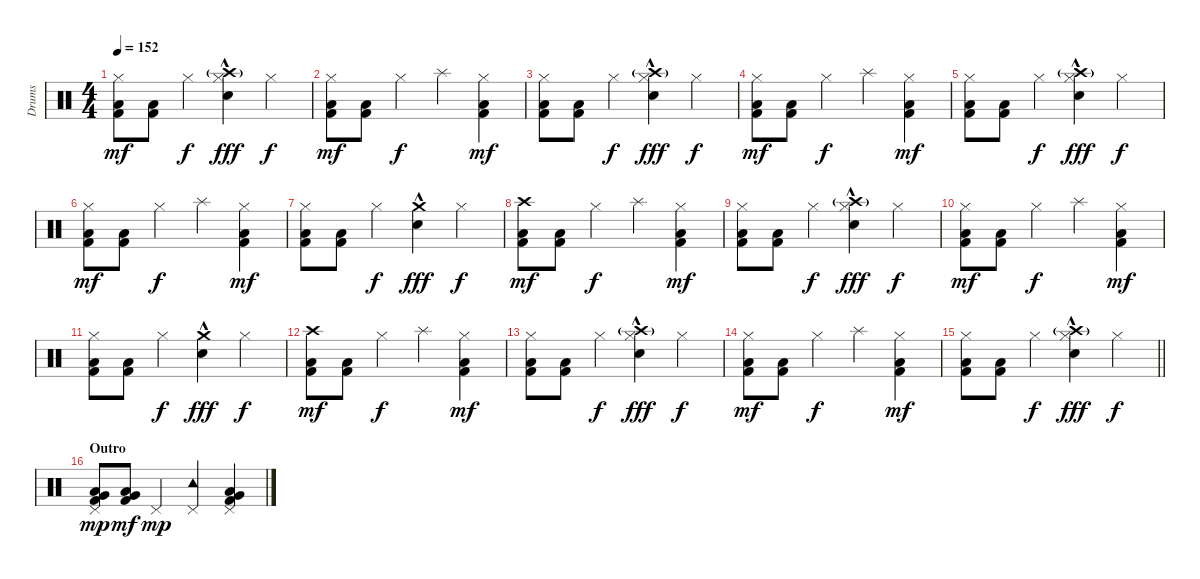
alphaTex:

\track ("Drums" "Drums") {instrument percussion}
\staff {score}
\articulation defaults
\ts (4 4)
\tempo 152
\clef neutral
\ks c
("Hi-Hat (closed)" "Low Floor Tom (hit)" "Kick (hit) 2").8{dy mf} ("Low Floor Tom (hit)" "Kick (hit) 2").8 "Hi-Hat (closed)".4{dy f} ("Crash high (hit)"{g} "Hi-Hat (closed)" "Snare (hit) 2"{hac}).4{dy fff} "Hi-Hat (closed)".4{dy f} |
("Hi-Hat (closed)" "Low Floor Tom (hit)" "Kick (hit) 2").8{dy mf} ("Low Floor Tom (hit)" "Kick (hit) 2").8 "Hi-Hat (closed)".4{dy f} "Splash (hit)".4 ("Hi-Hat (closed)" "Low Floor Tom (hit)" "Kick (hit) 2").4{dy mf} |
("Hi-Hat (closed)" "Low Floor Tom (hit)" "Kick (hit) 2").8 ("Low Floor Tom (hit)" "Kick (hit) 2").8 "Hi-Hat (closed)".4{dy f} ("Crash high (hit)"{g} "Hi-Hat (closed)" "Snare (hit) 2"{hac}).4{dy fff} "Hi-Hat (closed)".4{dy f} |
("Hi-Hat (closed)" "Low Floor Tom (hit)" "Kick (hit) 2").8{dy mf} ("Low Floor Tom (hit)" "Kick (hit) 2").8 "Hi-Hat (closed)".4{dy f} "Splash (hit)".4 ("Hi-Hat (closed)" "Low Floor Tom (hit)" "Kick (hit) 2").4{dy mf} |
("Hi-Hat (closed)" "Low Floor Tom (hit)" "Kick (hit) 2").8 ("Low Floor Tom (hit)" "Kick (hit) 2").8 "Hi-Hat (closed)".4{dy f} ("Crash high (hit)"{g} "Hi-Hat (closed)" "Snare (hit) 2"{hac}).4{dy fff} "Hi-Hat (closed)".4{dy f} |
("Hi-Hat (closed)" "Low Floor Tom (hit)" "Kick (hit) 2").8{dy mf} ("Low Floor Tom (hit)" "Kick (hit) 2").8 "Hi-Hat (closed)".4{dy f} "Splash (hit)".4 ("Hi-Hat (closed)" "Low Floor Tom (hit)" "Kick (hit) 2").4{dy mf} |
("Hi-Hat (closed)" "Low Floor Tom (hit)" "Kick (hit) 2").8 ("Low Floor Tom (hit)" "Kick (hit) 2").8 "Hi-Hat (closed)".4{dy f} ("Crash medium (hit)" "Snare (hit) 2"{hac}).4{dy fff} "Hi-Hat (closed)".4{dy f} |
("Crash high (hit)" "Low Floor Tom (hit)" "Kick (hit) 2").8{dy mf} ("Low Floor Tom (hit)" "Kick (hit) 2").8 "Hi-Hat (closed)".4{dy f} "Splash (hit)".4 ("Hi-Hat (closed)" "Low Floor Tom (hit)" "Kick (hit) 2").4{dy mf} |
("Hi-Hat (closed)" "Low Floor Tom (hit)" "Kick (hit) 2").8 ("Low Floor Tom (hit)" "Kick (hit) 2").8 "Hi-Hat (closed)".4{dy f} ("Crash high (hit)"{g} "Hi-Hat (closed)" "Snare (hit) 2"{hac}).4{dy fff} "Hi-Hat (closed)".4{dy f} |
("Hi-Hat (closed)" "Low Floor Tom (hit)" "Kick (hit) 2").8{dy mf} ("Low Floor Tom (hit)" "Kick (hit) 2").8 "Hi-Hat (closed)".4{dy f} "Splash (hit)".4 ("Hi-Hat (closed)" "Low Floor Tom (hit)" "Kick (hit) 2").4{dy mf} |
("Hi-Hat (closed)" "Low Floor Tom (hit)" "Kick (hit) 2").8 ("Low Floor Tom (hit)" "Kick (hit) 2").8 "Hi-Hat (closed)".4{dy f} ("Crash medium (hit)" "Snare (hit) 2"{hac}).4{dy fff} "Hi-Hat (closed)".4{dy f} |
("Crash high (hit)" "Low Floor Tom (hit)" "Kick (hit) 2").8{dy mf} ("Low Floor Tom (hit)" "Kick (hit) 2").8 "Hi-Hat (closed)".4{dy f} "Splash (hit)".4 ("Hi-Hat (closed)" "Low Floor Tom (hit)" "Kick (hit) 2").4{dy mf} |
("Hi-Hat (closed)" "Low Floor Tom (hit)" "Kick (hit) 2").8 ("Low Floor Tom (hit)" "Kick (hit) 2").8 "Hi-Hat (closed)".4{dy f} ("Crash high (hit)"{g} "Hi-Hat (closed)" "Snare (hit) 2"{hac}).4{dy fff} "Hi-Hat (closed)".4{dy f} |
("Hi-Hat (closed)" "Low Floor Tom (hit)" "Kick (hit) 2").8{dy mf} ("Low Floor Tom (hit)" "Kick (hit) 2").8 "Hi-Hat (closed)".4{dy f} "Splash (hit)".4 ("Hi-Hat (closed)" "Low Floor Tom (hit)" "Kick (hit) 2").4{dy mf} |
\barLineRight lightlight
("Hi-Hat (closed)" "Low Floor Tom (hit)" "Kick (hit) 2").8 ("Low Floor Tom (hit)" "Kick (hit) 2").8 "Hi-Hat (closed)".4{dy f} ("Crash high (hit)"{g} "Hi-Hat (closed)" "Snare (hit) 2"{hac}).4{dy fff} "Hi-Hat (closed)".4{dy f} |
\section ("" "Outro")
("Very Low Tom (hit)" "Low Floor Tom (hit)" "Pedal Hi-Hat (hit)" "Kick (hit) 2").8{dy mp} ("Very Low Tom (hit)" "Low Floor Tom (hit)" "Kick (hit) 2").8{dy mf} "Pedal Hi-Hat (hit)".4{dy mp} ("Tambourine (hit)" "Pedal Hi-Hat (hit)").4 ("Very Low Tom (hit)" "Low Floor Tom (hit)" "Pedal Hi-Hat (hit)" "Kick (hit) 2").4
